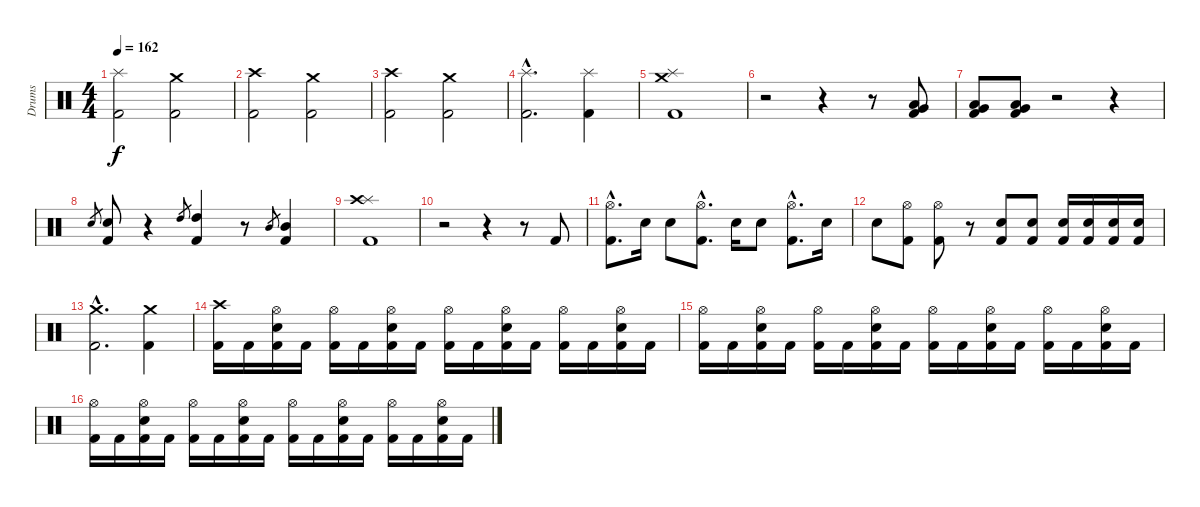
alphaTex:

\track ("Drums" "Drums") {instrument percussion}
\staff {score}
\articulation defaults
\ts (4 4)
\tempo 162
\clef neutral
\ks c
("Kick (hit) 2" "Splash (hit)").2{dy f} ("Kick (hit) 2" "Crash medium (hit)").2 |
("Kick (hit) 2" "Crash high (hit)").2 ("Kick (hit) 2" "Crash medium (hit)").2 |
("Kick (hit) 2" "Crash high (hit)").2 ("Kick (hit) 2" "Crash medium (hit)").2 |
("Kick (hit) 2"{hac} "Splash (hit)"{hac}).2{d} ("Kick (hit) 2" "Splash (hit)").4 |
("Kick (hit) 2" "Crash medium (hit)" "Splash (hit)").1 |
r.2 r.4 r.8 ("Kick (hit) 2" "Low Floor Tom (hit)" "Very Low Tom (hit)").8 |
("Kick (hit) 2" "Low Floor Tom (hit)" "Very Low Tom (hit)").8 ("Kick (hit) 2" "Low Floor Tom (hit)" "Very Low Tom (hit)").8 r.2 r.4 |
"Electric Snare (hit)".8{gr} ("Kick (hit) 2" "Electric Snare (hit)").8 r.4 "High Tom (hit)".8{gr} ("Kick (hit) 2" "High Tom (hit)").4 r.8 "Mid Tom (hit)".8{gr} ("Kick (hit) 2" "Mid Tom (hit)").4 |
("Kick (hit) 2" "Splash (hit)" "Crash high (hit)").1 |
r.2 r.4 r.8 "Kick (hit) 2".8 |
("Kick (hit) 2"{hac} "Hi-Hat (open)"{hac}).8{d} "Electric Snare (hit)".16 "Electric Snare (hit)".8 ("Kick (hit) 2"{hac} "Hi-Hat (open)"{hac}).8{d} "Electric Snare (hit)".16 "Electric Snare (hit)".8 ("Kick (hit) 2"{hac} "Hi-Hat (open)"{hac}).8{d} "Electric Snare (hit)".16 |
"Electric Snare (hit)".8 ("Kick (hit) 2" "Hi-Hat (open)").8 ("Kick (hit) 2" "Hi-Hat (open)").8 r.8 ("Kick (hit) 2" "Electric Snare (hit)").8 ("Kick (hit) 2" "Electric Snare (hit)").8 ("Kick (hit) 2" "Electric Snare (hit)").16 ("Kick (hit) 2" "Electric Snare (hit)").16 ("Kick (hit) 2" "Electric Snare (hit)").16 ("Kick (hit) 2" "Electric Snare (hit)").16 |
("Kick (hit) 2"{hac} "Crash medium (hit)"{hac}).2{d} ("Kick (hit) 2" "Crash medium (hit)").4 |
\section ("" "")
("Kick (hit) 2" "Crash high (hit)").16 "Kick (hit) 2".16 ("Kick (hit) 2" "Electric Snare (hit)" "Hi-Hat (open)").16 "Kick (hit) 2".16 ("Kick (hit) 2" "Hi-Hat (open)").16 "Kick (hit) 2".16 ("Kick (hit) 2" "Electric Snare (hit)" "Hi-Hat (open)").16 "Kick (hit) 2".16 ("Kick (hit) 2" "Hi-Hat (open)").16 "Kick (hit) 2".16 ("Kick (hit) 2" "Electric Snare (hit)" "Hi-Hat (open)").16 "Kick (hit) 2".16 ("Kick (hit) 2" "Hi-Hat (open)").16 "Kick (hit) 2".16 ("Kick (hit) 2" "Electric Snare (hit)" "Hi-Hat (open)").16 "Kick (hit) 2".16 |
("Kick (hit) 2" "Hi-Hat (open)").16 "Kick (hit) 2".16 ("Kick (hit) 2" "Electric Snare (hit)" "Hi-Hat (open)").16 "Kick (hit) 2".16 ("Kick (hit) 2" "Hi-Hat (open)").16 "Kick (hit) 2".16 ("Kick (hit) 2" "Electric Snare (hit)" "Hi-Hat (open)").16 "Kick (hit) 2".16 ("Kick (hit) 2" "Hi-Hat (open)").16 "Kick (hit) 2".16 ("Kick (hit) 2" "Electric Snare (hit)" "Hi-Hat (open)").16 "Kick (hit) 2".16 ("Kick (hit) 2" "Hi-Hat (open)").16 "Kick (hit) 2".16 ("Kick (hit) 2" "Electric Snare (hit)" "Hi-Hat (open)").16 "Kick (hit) 2".16 |
("Kick (hit) 2" "Hi-Hat (open)").16 "Kick (hit) 2".16 ("Kick (hit) 2" "Electric Snare (hit)" "Hi-Hat (open)").16 "Kick (hit) 2".16 ("Kick (hit) 2" "Hi-Hat (open)").16 "Kick (hit) 2".16 ("Kick (hit) 2" "Electric Snare (hit)" "Hi-Hat (open)").16 "Kick (hit) 2".16 ("Kick (hit) 2" "Hi-Hat (open)").16 "Kick (hit) 2".16 ("Kick (hit) 2" "Electric Snare (hit)" "Hi-Hat (open)").16 "Kick (hit) 2".16 ("Kick (hit) 2" "Hi-Hat (open)").16 "Kick (hit) 2".16 ("Kick (hit) 2" "Electric Snare (hit)" "Hi-Hat (open)").16 "Kick (hit) 2".16
